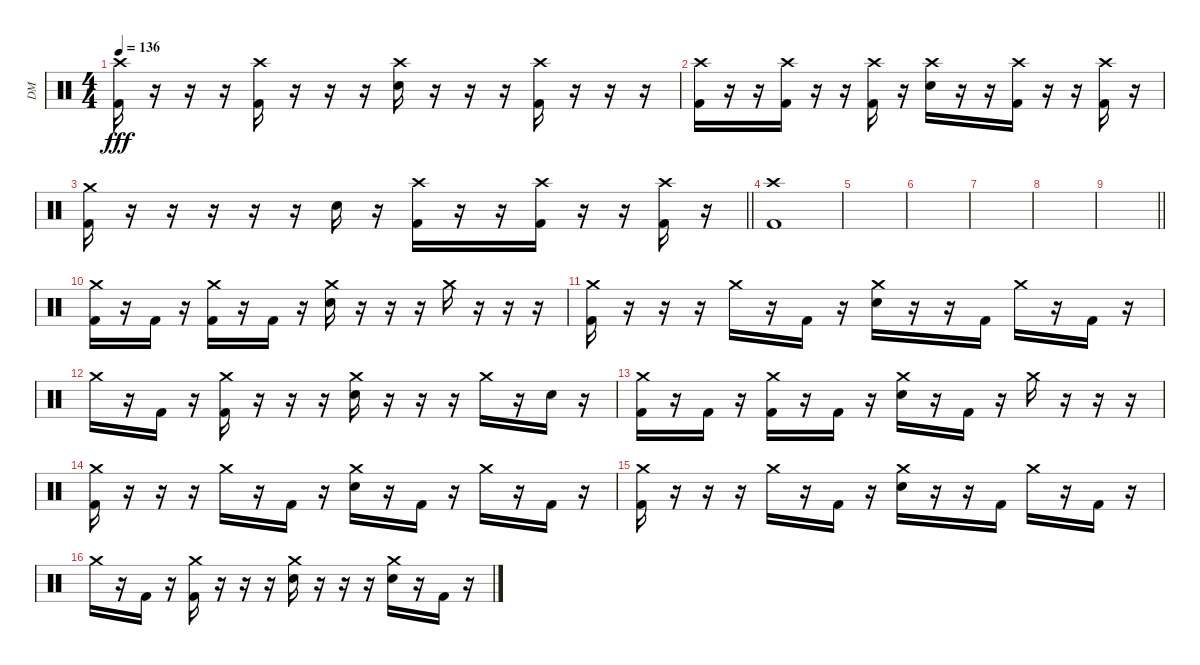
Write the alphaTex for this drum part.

\track ("DM" "DM") {instrument percussion}
\staff {score}
\articulation defaults
\ts (4 4)
\tempo 136
\clef neutral
\ks c
("Crash high (hit)" "Kick (hit) 2").16{dy fff} r.16 r.16 r.16 ("Crash high (hit)" "Kick (hit) 2").16 r.16 r.16 r.16 ("Crash high (hit)" "Electric Snare (hit)").16 r.16 r.16 r.16 ("Crash high (hit)" "Kick (hit) 2").16 r.16 r.16 r.16 |
("Crash high (hit)" "Kick (hit) 2").16 r.16 r.16 ("Crash high (hit)" "Kick (hit) 2").16 r.16 r.16 ("Crash high (hit)" "Kick (hit) 2").16 r.16 ("Crash high (hit)" "Electric Snare (hit)").16 r.16 r.16 ("Crash high (hit)" "Kick (hit) 2").16 r.16 r.16 ("Crash high (hit)" "Kick (hit) 2").16 r.16 |
\barLineRight lightlight
("Crash medium (hit)" "Kick (hit) 2").16 r.16 r.16 r.16 r.16 r.16 "Electric Snare (hit)".16 r.16 ("Crash high (hit)" "Kick (hit) 2").16 r.16 r.16 ("Crash high (hit)" "Kick (hit) 2").16 r.16 r.16 ("Crash high (hit)" "Kick (hit) 2").16 r.16 |
\section ("" "")
("Crash high (hit)" "Kick (hit) 2").1 |
|
|
|
|
\barLineRight lightlight
|
\section ("" "")
("Crash medium (hit)" "Kick (hit) 2").16 r.16 "Kick (hit) 2".16 r.16 ("Crash medium (hit)" "Kick (hit) 2").16 r.16 "Kick (hit) 2".16 r.16 ("Crash medium (hit)" "Electric Snare (hit)").16 r.16 r.16 r.16 "Crash medium (hit)".16 r.16 r.16 r.16 |
("Crash medium (hit)" "Kick (hit) 2").16 r.16 r.16 r.16 "Crash medium (hit)".16 r.16 "Kick (hit) 2".16 r.16 ("Crash medium (hit)" "Electric Snare (hit)").16 r.16 r.16 "Kick (hit) 2".16 "Crash medium (hit)".16 r.16 "Kick (hit) 2".16 r.16 |
"Crash medium (hit)".16 r.16 "Kick (hit) 2".16 r.16 ("Crash medium (hit)" "Kick (hit) 2").16 r.16 r.16 r.16 ("Crash medium (hit)" "Electric Snare (hit)").16 r.16 r.16 r.16 "Crash medium (hit)".16 r.16 "Electric Snare (hit)".16 r.16 |
("Crash medium (hit)" "Kick (hit) 2").16 r.16 "Kick (hit) 2".16 r.16 ("Crash medium (hit)" "Kick (hit) 2").16 r.16 "Kick (hit) 2".16 r.16 ("Crash medium (hit)" "Electric Snare (hit)").16 r.16 "Kick (hit) 2".16 r.16 "Crash medium (hit)".16 r.16 r.16 r.16 |
("Crash medium (hit)" "Kick (hit) 2").16 r.16 r.16 r.16 "Crash medium (hit)".16 r.16 "Kick (hit) 2".16 r.16 ("Crash medium (hit)" "Electric Snare (hit)").16 r.16 "Kick (hit) 2".16 r.16 "Crash medium (hit)".16 r.16 "Kick (hit) 2".16 r.16 |
("Crash medium (hit)" "Kick (hit) 2").16 r.16 r.16 r.16 "Crash medium (hit)".16 r.16 "Kick (hit) 2".16 r.16 ("Crash medium (hit)" "Electric Snare (hit)").16 r.16 r.16 "Kick (hit) 2".16 "Crash medium (hit)".16 r.16 "Kick (hit) 2".16 r.16 |
"Crash medium (hit)".16 r.16 "Kick (hit) 2".16 r.16 ("Crash medium (hit)" "Kick (hit) 2").16 r.16 r.16 r.16 ("Crash medium (hit)" "Electric Snare (hit)").16 r.16 r.16 r.16 ("Crash medium (hit)" "Electric Snare (hit)").16 r.16 "Kick (hit) 2".16 r.16
